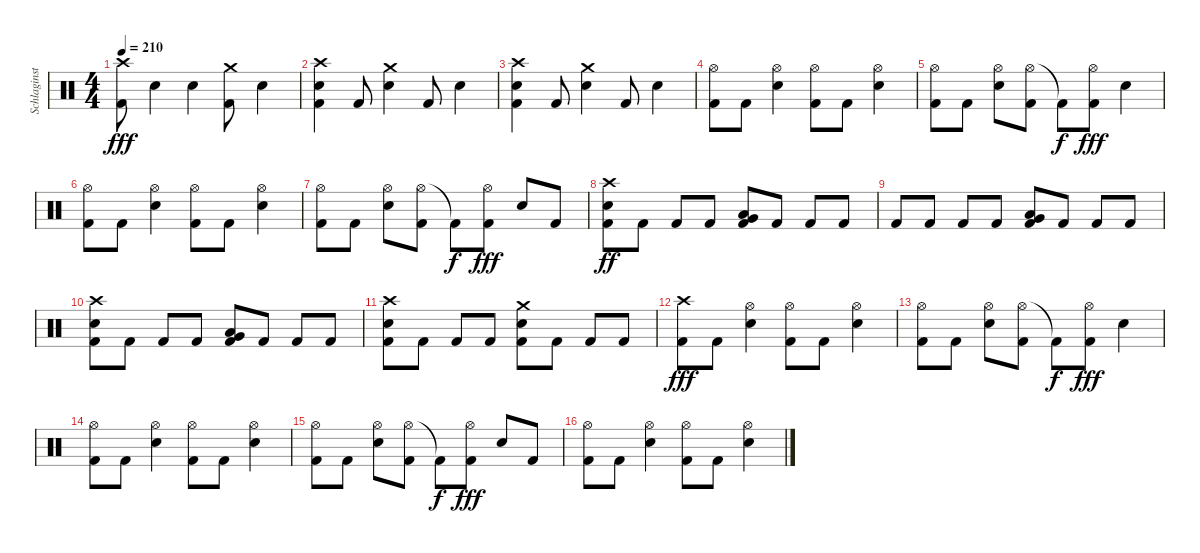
\track ("Schlaginstrumente - Auswahl" "Schlaginst") {instrument percussion}
\staff {score}
\articulation defaults
\ts (4 4)
\tempo 210
\clef neutral
\ks c
("Crash high (hit)" "Kick (hit) 2").8{dy fff} "Electric Snare (hit)".4 "Electric Snare (hit)".4 ("Crash medium (hit)" "Kick (hit) 2").8 "Electric Snare (hit)".4 |
("Crash high (hit)" "Electric Snare (hit)" "Kick (hit) 2").4 "Kick (hit) 2".8 ("Crash medium (hit)" "Electric Snare (hit)").4 "Kick (hit) 2".8 "Electric Snare (hit)".4 |
("Crash high (hit)" "Electric Snare (hit)" "Kick (hit) 2").4 "Kick (hit) 2".8 ("Crash medium (hit)" "Electric Snare (hit)").4 "Kick (hit) 2".8 "Electric Snare (hit)".4 |
("Hi-Hat (open)" "Kick (hit) 2").8 "Kick (hit) 2".8 ("Hi-Hat (open)" "Electric Snare (hit)").4 ("Hi-Hat (open)" "Kick (hit) 2").8 "Kick (hit) 2".8 ("Hi-Hat (open)" "Electric Snare (hit)").4 |
("Hi-Hat (open)" "Kick (hit) 2").8 "Kick (hit) 2".8 ("Hi-Hat (open)" "Electric Snare (hit)").8 ("Hi-Hat (open)" "Kick (hit) 2").8 "Kick (hit) 2"{t}.8{dy f} ("Hi-Hat (open)" "Kick (hit) 2").8{dy fff} "Electric Snare (hit)".4 |
("Hi-Hat (open)" "Kick (hit) 2").8 "Kick (hit) 2".8 ("Hi-Hat (open)" "Electric Snare (hit)").4 ("Hi-Hat (open)" "Kick (hit) 2").8 "Kick (hit) 2".8 ("Hi-Hat (open)" "Electric Snare (hit)").4 |
("Hi-Hat (open)" "Kick (hit) 2").8 "Kick (hit) 2".8 ("Hi-Hat (open)" "Electric Snare (hit)").8 ("Hi-Hat (open)" "Kick (hit) 2").8 "Kick (hit) 2"{t}.8{dy f} ("Hi-Hat (open)" "Kick (hit) 2").8{dy fff} "Electric Snare (hit)".8 "Kick (hit) 2".8 |
("Crash high (hit)" "Electric Snare (hit)" "Kick (hit) 2").8{dy ff} "Kick (hit) 2".8 "Kick (hit) 2".8 "Kick (hit) 2".8 ("Very Low Tom (hit)" "Low Tom (hit)" "Kick (hit) 2").8 "Kick (hit) 2".8 "Kick (hit) 2".8 "Kick (hit) 2".8 |
"Kick (hit) 2".8 "Kick (hit) 2".8 "Kick (hit) 2".8 "Kick (hit) 2".8 ("Very Low Tom (hit)" "Low Tom (hit)" "Kick (hit) 2").8 "Kick (hit) 2".8 "Kick (hit) 2".8 "Kick (hit) 2".8 |
("Crash high (hit)" "Electric Snare (hit)" "Kick (hit) 2").8 "Kick (hit) 2".8 "Kick (hit) 2".8 "Kick (hit) 2".8 ("Very Low Tom (hit)" "Low Tom (hit)" "Kick (hit) 2").8 "Kick (hit) 2".8 "Kick (hit) 2".8 "Kick (hit) 2".8 |
("Crash high (hit)" "Electric Snare (hit)" "Kick (hit) 2").8 "Kick (hit) 2".8 "Kick (hit) 2".8 "Kick (hit) 2".8 ("Crash medium (hit)" "Electric Snare (hit)" "Kick (hit) 2").8 "Kick (hit) 2".8 "Kick (hit) 2".8 "Kick (hit) 2".8 |
("Crash high (hit)" "Kick (hit) 2").8{dy fff} "Kick (hit) 2".8 ("Hi-Hat (open)" "Electric Snare (hit)").4 ("Hi-Hat (open)" "Kick (hit) 2").8 "Kick (hit) 2".8 ("Hi-Hat (open)" "Electric Snare (hit)").4 |
("Hi-Hat (open)" "Kick (hit) 2").8 "Kick (hit) 2".8 ("Hi-Hat (open)" "Electric Snare (hit)").8 ("Hi-Hat (open)" "Kick (hit) 2").8 "Kick (hit) 2"{t}.8{dy f} ("Hi-Hat (open)" "Kick (hit) 2").8{dy fff} "Electric Snare (hit)".4 |
("Hi-Hat (open)" "Kick (hit) 2").8 "Kick (hit) 2".8 ("Hi-Hat (open)" "Electric Snare (hit)").4 ("Hi-Hat (open)" "Kick (hit) 2").8 "Kick (hit) 2".8 ("Hi-Hat (open)" "Electric Snare (hit)").4 |
("Hi-Hat (open)" "Kick (hit) 2").8 "Kick (hit) 2".8 ("Hi-Hat (open)" "Electric Snare (hit)").8 ("Hi-Hat (open)" "Kick (hit) 2").8 "Kick (hit) 2"{t}.8{dy f} ("Hi-Hat (open)" "Kick (hit) 2").8{dy fff} "Electric Snare (hit)".8 "Kick (hit) 2".8 |
("Hi-Hat (open)" "Kick (hit) 2").8 "Kick (hit) 2".8 ("Hi-Hat (open)" "Electric Snare (hit)").4 ("Hi-Hat (open)" "Kick (hit) 2").8 "Kick (hit) 2".8 ("Hi-Hat (open)" "Electric Snare (hit)").4
